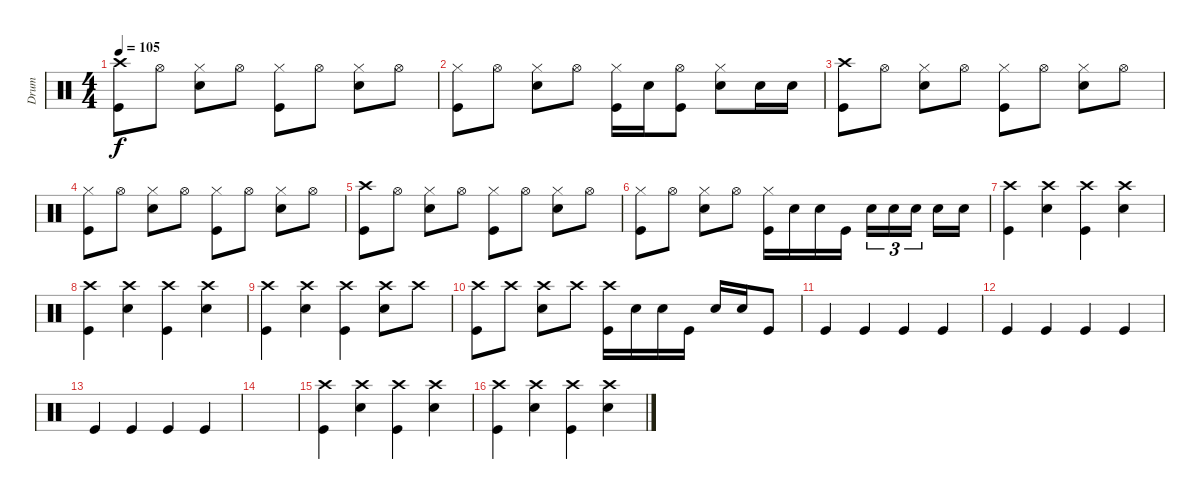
\track ("Drum" "Drum") {instrument percussion}
\staff {score}
\articulation defaults
\ts (4 4)
\tempo 105
\clef neutral
\ks c
("Crash high (hit)" "Kick (hit)").8{dy f} "Hi-Hat (open)".8 ("Hi-Hat (closed)" "Snare (hit) 2").8 "Hi-Hat (open)".8 ("Hi-Hat (closed)" "Kick (hit)").8 "Hi-Hat (open)".8 ("Hi-Hat (closed)" "Snare (hit) 2").8 "Hi-Hat (open)".8 |
("Hi-Hat (closed)" "Kick (hit)").8 "Hi-Hat (open)".8 ("Hi-Hat (closed)" "Snare (hit) 2").8 "Hi-Hat (open)".8 ("Hi-Hat (closed)" "Kick (hit)").16 "Snare (hit) 2".16 ("Hi-Hat (open)" "Kick (hit)").8 ("Hi-Hat (closed)" "Snare (hit) 2").8 "Snare (hit) 2".16 "Snare (hit) 2".16 |
("Crash high (hit)" "Kick (hit)").8 "Hi-Hat (open)".8 ("Hi-Hat (closed)" "Snare (hit) 2").8 "Hi-Hat (open)".8 ("Hi-Hat (closed)" "Kick (hit)").8 "Hi-Hat (open)".8 ("Hi-Hat (closed)" "Snare (hit) 2").8 "Hi-Hat (open)".8 |
("Hi-Hat (closed)" "Kick (hit)").8 "Hi-Hat (open)".8 ("Hi-Hat (closed)" "Snare (hit) 2").8 "Hi-Hat (open)".8 ("Hi-Hat (closed)" "Kick (hit)").8 "Hi-Hat (open)".8 ("Hi-Hat (closed)" "Snare (hit) 2").8 "Hi-Hat (open)".8 |
("Crash high (hit)" "Kick (hit)").8 "Hi-Hat (open)".8 ("Hi-Hat (closed)" "Snare (hit) 2").8 "Hi-Hat (open)".8 ("Hi-Hat (closed)" "Kick (hit)").8 "Hi-Hat (open)".8 ("Hi-Hat (closed)" "Snare (hit) 2").8 "Hi-Hat (open)".8 |
("Hi-Hat (closed)" "Kick (hit)").8 "Hi-Hat (open)".8 ("Hi-Hat (closed)" "Snare (hit) 2").8 "Hi-Hat (open)".8 ("Hi-Hat (closed)" "Kick (hit)").16 "Snare (hit) 2".16 "Snare (hit) 2".16 "Kick (hit)".16 "Snare (hit) 2".16{tu (3 2)} "Snare (hit) 2".16{tu (3 2)} "Snare (hit) 2".16{tu (3 2) beam splitsecondary} "Snare (hit) 2".16 "Snare (hit) 2".16 |
("Crash high (hit)" "Kick (hit)").4 ("Crash high (hit)" "Snare (hit) 2").4 ("Crash high (hit)" "Kick (hit)").4 ("Crash high (hit)" "Snare (hit) 2").4 |
("Crash high (hit)" "Kick (hit)").4 ("Crash high (hit)" "Snare (hit) 2").4 ("Crash high (hit)" "Kick (hit)").4 ("Crash high (hit)" "Snare (hit) 2").4 |
("Crash high (hit)" "Kick (hit)").4 ("Crash high (hit)" "Snare (hit) 2").4 ("Crash high (hit)" "Kick (hit)").4 ("Crash high (hit)" "Snare (hit) 2").8 "Crash high (hit)".8 |
("Crash high (hit)" "Kick (hit)").8 "Crash high (hit)".8 ("Crash high (hit)" "Snare (hit) 2").8 "Crash high (hit)".8 ("Crash high (hit)" "Kick (hit)").16 "Snare (hit) 2".16 "Snare (hit) 2".16 "Kick (hit)".16 "Snare (hit) 2".16 "Snare (hit) 2".16 "Kick (hit)".8 |
"Kick (hit)".4 "Kick (hit)".4 "Kick (hit)".4 "Kick (hit)".4 |
"Kick (hit)".4 "Kick (hit)".4 "Kick (hit)".4 "Kick (hit)".4 |
"Kick (hit)".4 "Kick (hit)".4 "Kick (hit)".4 "Kick (hit)".4 |
|
("Crash high (hit)" "Kick (hit)").4 ("Crash high (hit)" "Snare (hit) 2").4 ("Crash high (hit)" "Kick (hit)").4 ("Crash high (hit)" "Snare (hit) 2").4 |
("Crash high (hit)" "Kick (hit)").4 ("Crash high (hit)" "Snare (hit) 2").4 ("Crash high (hit)" "Kick (hit)").4 ("Crash high (hit)" "Snare (hit) 2").4
